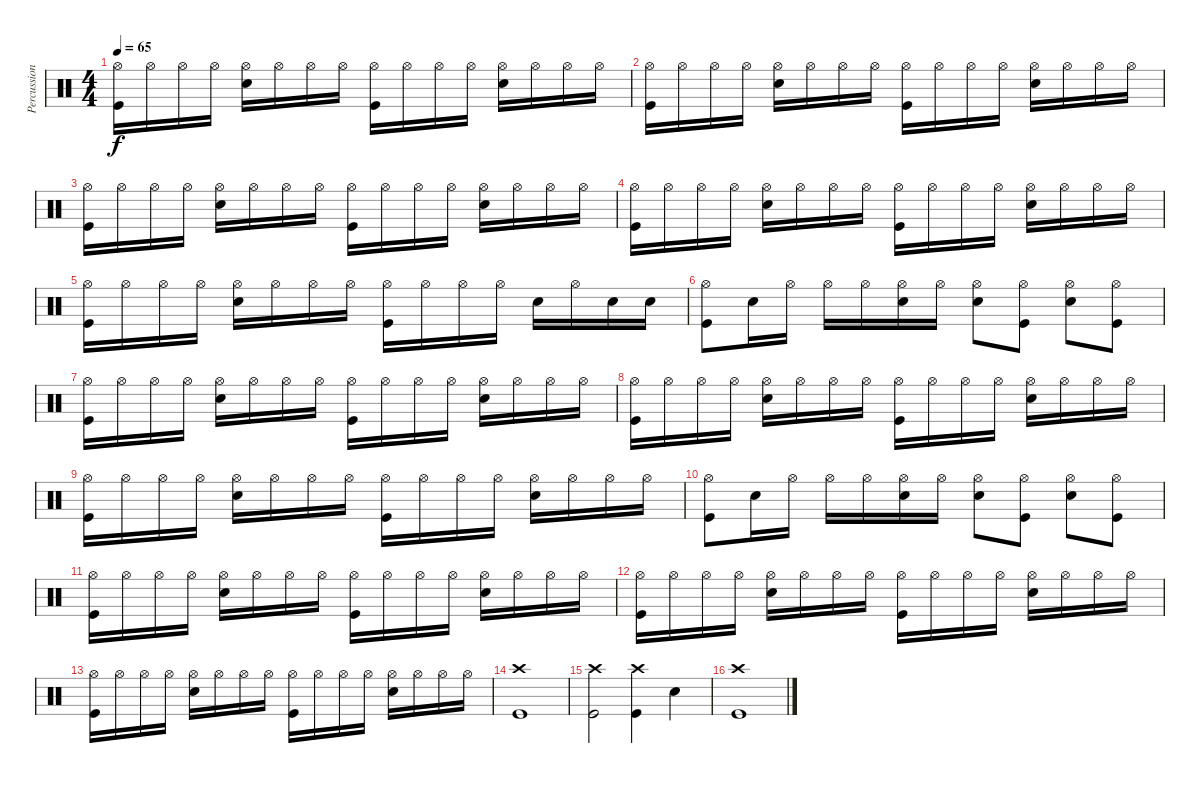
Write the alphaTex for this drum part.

\track ("Percussions" "Percussion") {instrument percussion}
\staff {score}
\articulation defaults
\ts (4 4)
\tempo 65
\clef neutral
\ks c
("Hi-Hat (open)" "Kick (hit)").16{dy f} "Hi-Hat (open)".16 "Hi-Hat (open)".16 "Hi-Hat (open)".16 ("Hi-Hat (open)" "Snare (hit) 2").16 "Hi-Hat (open)".16 "Hi-Hat (open)".16 "Hi-Hat (open)".16 ("Hi-Hat (open)" "Kick (hit)").16 "Hi-Hat (open)".16 "Hi-Hat (open)".16 "Hi-Hat (open)".16 ("Hi-Hat (open)" "Snare (hit) 2").16 "Hi-Hat (open)".16 "Hi-Hat (open)".16 "Hi-Hat (open)".16 |
("Hi-Hat (open)" "Kick (hit)").16 "Hi-Hat (open)".16 "Hi-Hat (open)".16 "Hi-Hat (open)".16 ("Hi-Hat (open)" "Snare (hit) 2").16 "Hi-Hat (open)".16 "Hi-Hat (open)".16 "Hi-Hat (open)".16 ("Hi-Hat (open)" "Kick (hit)").16 "Hi-Hat (open)".16 "Hi-Hat (open)".16 "Hi-Hat (open)".16 ("Hi-Hat (open)" "Snare (hit) 2").16 "Hi-Hat (open)".16 "Hi-Hat (open)".16 "Hi-Hat (open)".16 |
("Hi-Hat (open)" "Kick (hit)").16 "Hi-Hat (open)".16 "Hi-Hat (open)".16 "Hi-Hat (open)".16 ("Hi-Hat (open)" "Snare (hit) 2").16 "Hi-Hat (open)".16 "Hi-Hat (open)".16 "Hi-Hat (open)".16 ("Hi-Hat (open)" "Kick (hit)").16 "Hi-Hat (open)".16 "Hi-Hat (open)".16 "Hi-Hat (open)".16 ("Hi-Hat (open)" "Snare (hit) 2").16 "Hi-Hat (open)".16 "Hi-Hat (open)".16 "Hi-Hat (open)".16 |
("Hi-Hat (open)" "Kick (hit)").16 "Hi-Hat (open)".16 "Hi-Hat (open)".16 "Hi-Hat (open)".16 ("Hi-Hat (open)" "Snare (hit) 2").16 "Hi-Hat (open)".16 "Hi-Hat (open)".16 "Hi-Hat (open)".16 ("Hi-Hat (open)" "Kick (hit)").16 "Hi-Hat (open)".16 "Hi-Hat (open)".16 "Hi-Hat (open)".16 ("Hi-Hat (open)" "Snare (hit) 2").16 "Hi-Hat (open)".16 "Hi-Hat (open)".16 "Hi-Hat (open)".16 |
("Hi-Hat (open)" "Kick (hit)").16 "Hi-Hat (open)".16 "Hi-Hat (open)".16 "Hi-Hat (open)".16 ("Hi-Hat (open)" "Snare (hit) 2").16 "Hi-Hat (open)".16 "Hi-Hat (open)".16 "Hi-Hat (open)".16 ("Hi-Hat (open)" "Kick (hit)").16 "Hi-Hat (open)".16 "Hi-Hat (open)".16 "Hi-Hat (open)".16 "Snare (hit) 2".16 "Hi-Hat (open)".16 "Snare (hit) 2".16 "Snare (hit) 2".16 |
("Hi-Hat (open)" "Kick (hit)").8 "Snare (hit) 2".16 "Hi-Hat (open)".16 "Hi-Hat (open)".16 "Hi-Hat (open)".16 ("Hi-Hat (open)" "Snare (hit) 2").16 "Hi-Hat (open)".16 ("Hi-Hat (open)" "Snare (hit) 2").8 ("Hi-Hat (open)" "Kick (hit)").8 ("Hi-Hat (open)" "Snare (hit) 2").8 ("Hi-Hat (open)" "Kick (hit)").8 |
("Hi-Hat (open)" "Kick (hit)").16 "Hi-Hat (open)".16 "Hi-Hat (open)".16 "Hi-Hat (open)".16 ("Hi-Hat (open)" "Snare (hit) 2").16 "Hi-Hat (open)".16 "Hi-Hat (open)".16 "Hi-Hat (open)".16 ("Hi-Hat (open)" "Kick (hit)").16 "Hi-Hat (open)".16 "Hi-Hat (open)".16 "Hi-Hat (open)".16 ("Hi-Hat (open)" "Snare (hit) 2").16 "Hi-Hat (open)".16 "Hi-Hat (open)".16 "Hi-Hat (open)".16 |
("Hi-Hat (open)" "Kick (hit)").16 "Hi-Hat (open)".16 "Hi-Hat (open)".16 "Hi-Hat (open)".16 ("Hi-Hat (open)" "Snare (hit) 2").16 "Hi-Hat (open)".16 "Hi-Hat (open)".16 "Hi-Hat (open)".16 ("Hi-Hat (open)" "Kick (hit)").16 "Hi-Hat (open)".16 "Hi-Hat (open)".16 "Hi-Hat (open)".16 ("Hi-Hat (open)" "Snare (hit) 2").16 "Hi-Hat (open)".16 "Hi-Hat (open)".16 "Hi-Hat (open)".16 |
("Hi-Hat (open)" "Kick (hit)").16 "Hi-Hat (open)".16 "Hi-Hat (open)".16 "Hi-Hat (open)".16 ("Hi-Hat (open)" "Snare (hit) 2").16 "Hi-Hat (open)".16 "Hi-Hat (open)".16 "Hi-Hat (open)".16 ("Hi-Hat (open)" "Kick (hit)").16 "Hi-Hat (open)".16 "Hi-Hat (open)".16 "Hi-Hat (open)".16 ("Hi-Hat (open)" "Snare (hit) 2").16 "Hi-Hat (open)".16 "Hi-Hat (open)".16 "Hi-Hat (open)".16 |
("Hi-Hat (open)" "Kick (hit)").8 "Snare (hit) 2".16 "Hi-Hat (open)".16 "Hi-Hat (open)".16 "Hi-Hat (open)".16 ("Hi-Hat (open)" "Snare (hit) 2").16 "Hi-Hat (open)".16 ("Hi-Hat (open)" "Snare (hit) 2").8 ("Hi-Hat (open)" "Kick (hit)").8 ("Hi-Hat (open)" "Snare (hit) 2").8 ("Hi-Hat (open)" "Kick (hit)").8 |
("Hi-Hat (open)" "Kick (hit)").16 "Hi-Hat (open)".16 "Hi-Hat (open)".16 "Hi-Hat (open)".16 ("Hi-Hat (open)" "Snare (hit) 2").16 "Hi-Hat (open)".16 "Hi-Hat (open)".16 "Hi-Hat (open)".16 ("Hi-Hat (open)" "Kick (hit)").16 "Hi-Hat (open)".16 "Hi-Hat (open)".16 "Hi-Hat (open)".16 ("Hi-Hat (open)" "Snare (hit) 2").16 "Hi-Hat (open)".16 "Hi-Hat (open)".16 "Hi-Hat (open)".16 |
("Hi-Hat (open)" "Kick (hit)").16 "Hi-Hat (open)".16 "Hi-Hat (open)".16 "Hi-Hat (open)".16 ("Hi-Hat (open)" "Snare (hit) 2").16 "Hi-Hat (open)".16 "Hi-Hat (open)".16 "Hi-Hat (open)".16 ("Hi-Hat (open)" "Kick (hit)").16 "Hi-Hat (open)".16 "Hi-Hat (open)".16 "Hi-Hat (open)".16 ("Hi-Hat (open)" "Snare (hit) 2").16 "Hi-Hat (open)".16 "Hi-Hat (open)".16 "Hi-Hat (open)".16 |
("Hi-Hat (open)" "Kick (hit)").16 "Hi-Hat (open)".16 "Hi-Hat (open)".16 "Hi-Hat (open)".16 ("Hi-Hat (open)" "Snare (hit) 2").16 "Hi-Hat (open)".16 "Hi-Hat (open)".16 "Hi-Hat (open)".16 ("Hi-Hat (open)" "Kick (hit)").16 "Hi-Hat (open)".16 "Hi-Hat (open)".16 "Hi-Hat (open)".16 ("Hi-Hat (open)" "Snare (hit) 2").16 "Hi-Hat (open)".16 "Hi-Hat (open)".16 "Hi-Hat (open)".16 |
("Crash high (hit)" "Kick (hit)").1 |
("Crash high (hit)" "Kick (hit)").2 ("Crash high (hit)" "Kick (hit)").4 "Snare (hit) 2".4 |
("Crash high (hit)" "Kick (hit)").1
